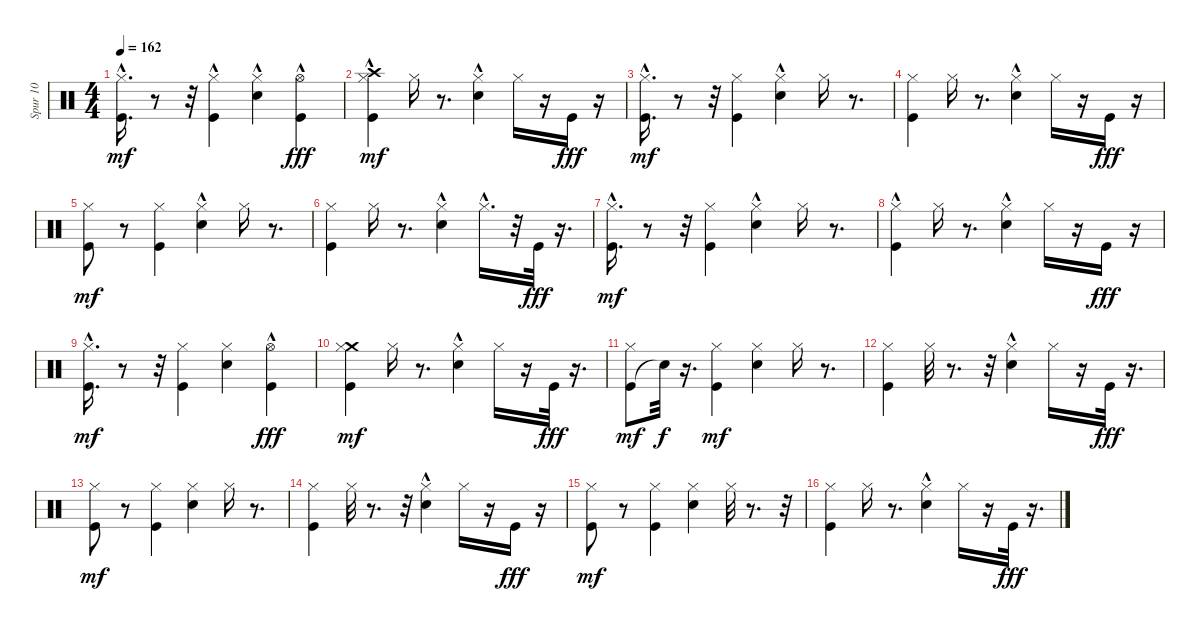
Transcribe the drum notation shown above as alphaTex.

\track ("Spur 10" "Spur 10") {instrument percussion}
\staff {score}
\articulation defaults
\ts (4 4)
\tempo 162
\clef neutral
\ks c
("Kick (hit)"{hac} "Hi-Hat (closed)"{hac}).16{d dy mf} r.8 r.32 ("Kick (hit)" "Hi-Hat (closed)"{hac}).4 ("Snare (hit) 2"{hac} "Hi-Hat (closed)").4 ("Kick (hit)"{hac} "Hi-Hat (open)").4{dy fff} |
("Crash high (hit)" "Kick (hit)" "Hi-Hat (closed)"{hac}).4{dy mf} "Hi-Hat (closed)".16 r.8{d} ("Snare (hit) 2"{hac} "Hi-Hat (closed)").4 "Hi-Hat (closed)".16 r.16 "Kick (hit)".16{dy fff} r.16 |
("Kick (hit)"{hac} "Hi-Hat (closed)").16{d dy mf} r.8 r.32 ("Kick (hit)" "Hi-Hat (closed)").4 ("Snare (hit) 2"{hac} "Hi-Hat (closed)").4 "Hi-Hat (closed)".16 r.8{d} |
("Kick (hit)" "Hi-Hat (closed)").4 "Hi-Hat (closed)".16 r.8{d} ("Snare (hit) 2"{hac} "Hi-Hat (closed)").4 "Hi-Hat (closed)".16 r.16 "Kick (hit)".16{dy fff} r.16 |
("Kick (hit)" "Hi-Hat (closed)").8{dy mf} r.8 ("Kick (hit)" "Hi-Hat (closed)").4 ("Snare (hit) 2"{hac} "Hi-Hat (closed)").4 "Hi-Hat (closed)".16 r.8{d} |
("Kick (hit)" "Hi-Hat (closed)").4 "Hi-Hat (closed)".16 r.8{d} ("Snare (hit) 2"{hac} "Hi-Hat (closed)"{hac}).4 "Hi-Hat (closed)"{hac}.16{d} r.32 "Kick (hit)".32{dy fff} r.16{d} |
("Kick (hit)"{hac} "Hi-Hat (closed)"{hac}).16{d dy mf} r.8 r.32 ("Kick (hit)" "Hi-Hat (closed)").4 ("Snare (hit) 2"{hac} "Hi-Hat (closed)").4 "Hi-Hat (closed)".16 r.8{d} |
("Kick (hit)"{hac} "Hi-Hat (closed)").4 "Hi-Hat (closed)".16 r.8{d} ("Snare (hit) 2"{hac} "Hi-Hat (closed)").4 "Hi-Hat (closed)".16 r.16 "Kick (hit)".16{dy fff} r.16 |
("Kick (hit)"{hac} "Hi-Hat (closed)").16{d dy mf} r.8 r.32 ("Kick (hit)" "Hi-Hat (closed)").4 ("Snare (hit) 2" "Hi-Hat (closed)").4 ("Kick (hit)"{hac} "Hi-Hat (open)").4{dy fff} |
("Crash medium (hit)" "Kick (hit)" "Hi-Hat (closed)").4{dy mf} "Hi-Hat (closed)".16 r.8{d} ("Snare (hit) 2"{hac} "Hi-Hat (closed)").4 "Hi-Hat (closed)".16 r.16 "Kick (hit)".32{dy fff} r.16{d} |
("Kick (hit)" "Hi-Hat (closed)").8{dy mf} "Snare (hit)"{t}.32{dy f} r.16{d} ("Kick (hit)" "Hi-Hat (closed)").4{dy mf} ("Snare (hit) 2" "Hi-Hat (closed)").4 "Hi-Hat (closed)".16 r.8{d} |
("Kick (hit)" "Hi-Hat (closed)").4 "Hi-Hat (closed)".32 r.8{d} r.32 ("Snare (hit) 2"{hac} "Hi-Hat (closed)").4 "Hi-Hat (closed)".16 r.16 "Kick (hit)".32{dy fff} r.16{d} |
("Kick (hit)" "Hi-Hat (closed)").8{dy mf} r.8 ("Kick (hit)" "Hi-Hat (closed)").4 ("Snare (hit) 2" "Hi-Hat (closed)").4 "Hi-Hat (closed)".16 r.8{d} |
("Kick (hit)" "Hi-Hat (closed)").4 "Hi-Hat (closed)".32 r.8{d} r.32 ("Snare (hit) 2"{hac} "Hi-Hat (closed)").4 "Hi-Hat (closed)".16 r.16 "Kick (hit)".16{dy fff} r.16 |
("Kick (hit)" "Hi-Hat (closed)").8{dy mf} r.8 ("Kick (hit)" "Hi-Hat (closed)").4 ("Snare (hit) 2" "Hi-Hat (closed)").4 "Hi-Hat (closed)".32 r.8{d} r.32 |
("Kick (hit)" "Hi-Hat (closed)").4 "Hi-Hat (closed)".16 r.8{d} ("Snare (hit) 2"{hac} "Hi-Hat (closed)").4 "Hi-Hat (closed)".16 r.16 "Kick (hit)".32{dy fff} r.16{d}
